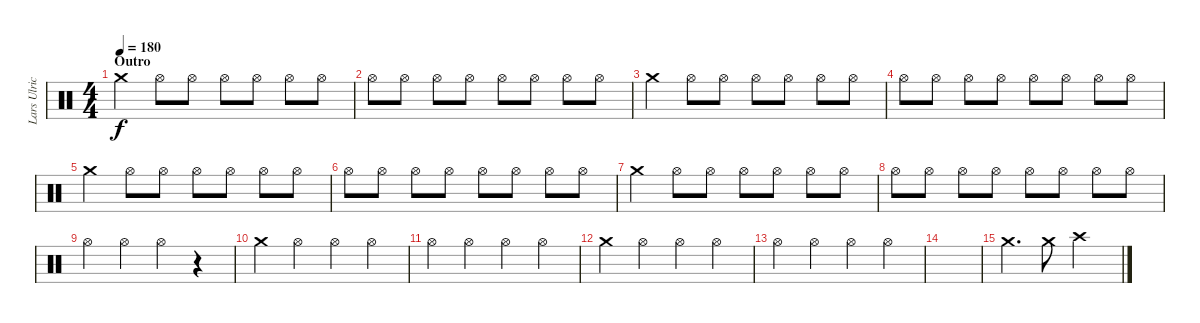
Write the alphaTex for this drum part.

\track ("Lars Ulrich" "Lars Ulric") {instrument percussion}
\staff {score}
\articulation defaults
\ts (4 4)
\section ("" "Outro")
\tempo 180
\clef neutral
\ks c "Crash medium (hit)".4{dy f} "Hi-Hat (open)".8 "Hi-Hat (open)".8 "Hi-Hat (open)".8 "Hi-Hat (open)".8 "Hi-Hat (open)".8 "Hi-Hat (open)".8
|
"Hi-Hat (open)".8 "Hi-Hat (open)".8 "Hi-Hat (open)".8 "Hi-Hat (open)".8 "Hi-Hat (open)".8 "Hi-Hat (open)".8 "Hi-Hat (open)".8 "Hi-Hat (open)".8 |
"Crash medium (hit)".4 "Hi-Hat (open)".8 "Hi-Hat (open)".8 "Hi-Hat (open)".8 "Hi-Hat (open)".8 "Hi-Hat (open)".8 "Hi-Hat (open)".8 |
"Hi-Hat (open)".8 "Hi-Hat (open)".8 "Hi-Hat (open)".8 "Hi-Hat (open)".8 "Hi-Hat (open)".8 "Hi-Hat (open)".8 "Hi-Hat (open)".8 "Hi-Hat (open)".8 |
"Crash medium (hit)".4 "Hi-Hat (open)".8 "Hi-Hat (open)".8 "Hi-Hat (open)".8 "Hi-Hat (open)".8 "Hi-Hat (open)".8 "Hi-Hat (open)".8 |
"Hi-Hat (open)".8 "Hi-Hat (open)".8 "Hi-Hat (open)".8 "Hi-Hat (open)".8 "Hi-Hat (open)".8 "Hi-Hat (open)".8 "Hi-Hat (open)".8 "Hi-Hat (open)".8 |
"Crash medium (hit)".4 "Hi-Hat (open)".8 "Hi-Hat (open)".8 "Hi-Hat (open)".8 "Hi-Hat (open)".8 "Hi-Hat (open)".8 "Hi-Hat (open)".8 |
"Hi-Hat (open)".8 "Hi-Hat (open)".8 "Hi-Hat (open)".8 "Hi-Hat (open)".8 "Hi-Hat (open)".8 "Hi-Hat (open)".8 "Hi-Hat (open)".8 "Hi-Hat (open)".8 |
"Hi-Hat (open)".4 "Hi-Hat (open)".4 "Hi-Hat (open)".4 r.4 |
"Crash medium (hit)".4 "Hi-Hat (open)".4 "Hi-Hat (open)".4 "Hi-Hat (open)".4 |
"Hi-Hat (open)".4 "Hi-Hat (open)".4 "Hi-Hat (open)".4 "Hi-Hat (open)".4 |
"Crash medium (hit)".4 "Hi-Hat (open)".4 "Hi-Hat (open)".4 "Hi-Hat (open)".4 |
"Hi-Hat (open)".4 "Hi-Hat (open)".4 "Hi-Hat (open)".4 "Hi-Hat (open)".4 |
|
"Crash medium (hit)".4{d} "Crash medium (hit)".8 "Crash high (hit)".2
